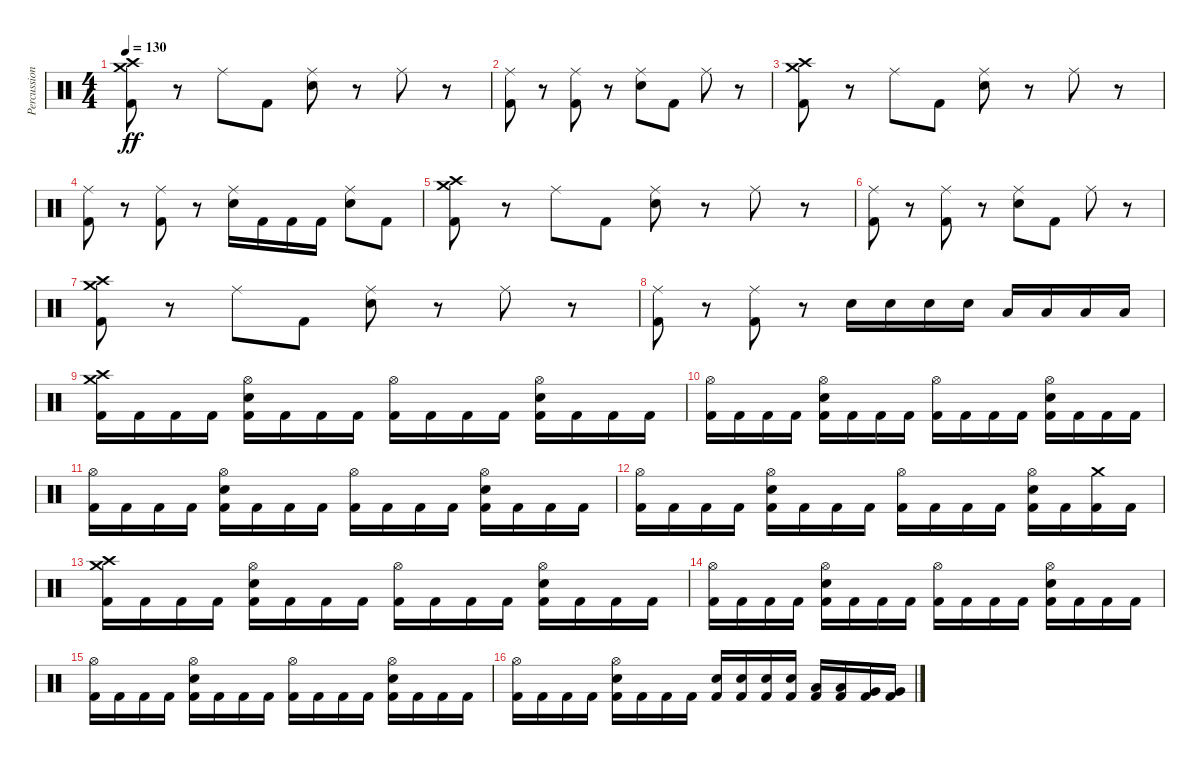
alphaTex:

\track ("Percussion" "Percussion") {instrument percussion}
\staff {score}
\articulation defaults
\ts (4 4)
\tempo 130
\clef neutral
\ks c
("Kick (hit) 2" "Crash high (hit)" "Crash medium (hit)").8{dy ff} r.8 "Ride (middle)".8 "Kick (hit) 2".8 ("Electric Snare (hit)" "Ride (middle)").8 r.8 "Ride (middle)".8 r.8 |
("Kick (hit) 2" "Ride (middle)").8 r.8 ("Kick (hit) 2" "Ride (middle)").8 r.8 ("Electric Snare (hit)" "Ride (middle)").8 "Kick (hit) 2".8 "Ride (middle)".8 r.8 |
("Kick (hit) 2" "Crash high (hit)" "Crash medium (hit)").8 r.8 "Ride (middle)".8 "Kick (hit) 2".8 ("Electric Snare (hit)" "Ride (middle)").8 r.8 "Ride (middle)".8 r.8 |
("Kick (hit) 2" "Ride (middle)").8 r.8 ("Kick (hit) 2" "Ride (middle)").8 r.8 ("Electric Snare (hit)" "Ride (middle)").16 "Kick (hit) 2".16 "Kick (hit) 2".16 "Kick (hit) 2".16 ("Electric Snare (hit)" "Ride (middle)").8 "Kick (hit) 2".8 |
("Kick (hit) 2" "Crash high (hit)" "Crash medium (hit)").8 r.8 "Ride (middle)".8 "Kick (hit) 2".8 ("Electric Snare (hit)" "Ride (middle)").8 r.8 "Ride (middle)".8 r.8 |
("Kick (hit) 2" "Ride (middle)").8 r.8 ("Kick (hit) 2" "Ride (middle)").8 r.8 ("Electric Snare (hit)" "Ride (middle)").8 "Kick (hit) 2".8 "Ride (middle)".8 r.8 |
("Kick (hit) 2" "Crash high (hit)" "Crash medium (hit)").8 r.8 "Ride (middle)".8 "Kick (hit) 2".8 ("Electric Snare (hit)" "Ride (middle)").8 r.8 "Ride (middle)".8 r.8 |
("Kick (hit) 2" "Ride (middle)").8 r.8 ("Kick (hit) 2" "Ride (middle)").8 r.8 "Electric Snare (hit)".16 "Electric Snare (hit)".16 "Electric Snare (hit)".16 "Electric Snare (hit)".16 "Low Tom (hit)".16 "Low Tom (hit)".16 "Low Tom (hit)".16 "Low Tom (hit)".16 |
("Kick (hit) 2" "Crash high (hit)" "Crash medium (hit)").16 "Kick (hit) 2".16 "Kick (hit) 2".16 "Kick (hit) 2".16 ("Kick (hit) 2" "Electric Snare (hit)" "Hi-Hat (open)").16 "Kick (hit) 2".16 "Kick (hit) 2".16 "Kick (hit) 2".16 ("Kick (hit) 2" "Hi-Hat (open)").16 "Kick (hit) 2".16 "Kick (hit) 2".16 "Kick (hit) 2".16 ("Kick (hit) 2" "Electric Snare (hit)" "Hi-Hat (open)").16 "Kick (hit) 2".16 "Kick (hit) 2".16 "Kick (hit) 2".16 |
("Kick (hit) 2" "Hi-Hat (open)").16 "Kick (hit) 2".16 "Kick (hit) 2".16 "Kick (hit) 2".16 ("Kick (hit) 2" "Electric Snare (hit)" "Hi-Hat (open)").16 "Kick (hit) 2".16 "Kick (hit) 2".16 "Kick (hit) 2".16 ("Kick (hit) 2" "Hi-Hat (open)").16 "Kick (hit) 2".16 "Kick (hit) 2".16 "Kick (hit) 2".16 ("Kick (hit) 2" "Electric Snare (hit)" "Hi-Hat (open)").16 "Kick (hit) 2".16 "Kick (hit) 2".16 "Kick (hit) 2".16 |
("Kick (hit) 2" "Hi-Hat (open)").16 "Kick (hit) 2".16 "Kick (hit) 2".16 "Kick (hit) 2".16 ("Kick (hit) 2" "Electric Snare (hit)" "Hi-Hat (open)").16 "Kick (hit) 2".16 "Kick (hit) 2".16 "Kick (hit) 2".16 ("Kick (hit) 2" "Hi-Hat (open)").16 "Kick (hit) 2".16 "Kick (hit) 2".16 "Kick (hit) 2".16 ("Kick (hit) 2" "Electric Snare (hit)" "Hi-Hat (open)").16 "Kick (hit) 2".16 "Kick (hit) 2".16 "Kick (hit) 2".16 |
("Kick (hit) 2" "Hi-Hat (open)").16 "Kick (hit) 2".16 "Kick (hit) 2".16 "Kick (hit) 2".16 ("Kick (hit) 2" "Electric Snare (hit)" "Hi-Hat (open)").16 "Kick (hit) 2".16 "Kick (hit) 2".16 "Kick (hit) 2".16 ("Kick (hit) 2" "Hi-Hat (open)").16 "Kick (hit) 2".16 "Kick (hit) 2".16 "Kick (hit) 2".16 ("Kick (hit) 2" "Electric Snare (hit)" "Hi-Hat (open)").16 "Kick (hit) 2".16 ("Kick (hit) 2" "Crash medium (hit)").16 "Kick (hit) 2".16 |
("Kick (hit) 2" "Crash high (hit)" "Crash medium (hit)").16 "Kick (hit) 2".16 "Kick (hit) 2".16 "Kick (hit) 2".16 ("Kick (hit) 2" "Electric Snare (hit)" "Hi-Hat (open)").16 "Kick (hit) 2".16 "Kick (hit) 2".16 "Kick (hit) 2".16 ("Kick (hit) 2" "Hi-Hat (open)").16 "Kick (hit) 2".16 "Kick (hit) 2".16 "Kick (hit) 2".16 ("Kick (hit) 2" "Electric Snare (hit)" "Hi-Hat (open)").16 "Kick (hit) 2".16 "Kick (hit) 2".16 "Kick (hit) 2".16 |
("Kick (hit) 2" "Hi-Hat (open)").16 "Kick (hit) 2".16 "Kick (hit) 2".16 "Kick (hit) 2".16 ("Kick (hit) 2" "Electric Snare (hit)" "Hi-Hat (open)").16 "Kick (hit) 2".16 "Kick (hit) 2".16 "Kick (hit) 2".16 ("Kick (hit) 2" "Hi-Hat (open)").16 "Kick (hit) 2".16 "Kick (hit) 2".16 "Kick (hit) 2".16 ("Kick (hit) 2" "Electric Snare (hit)" "Hi-Hat (open)").16 "Kick (hit) 2".16 "Kick (hit) 2".16 "Kick (hit) 2".16 |
("Kick (hit) 2" "Hi-Hat (open)").16 "Kick (hit) 2".16 "Kick (hit) 2".16 "Kick (hit) 2".16 ("Kick (hit) 2" "Electric Snare (hit)" "Hi-Hat (open)").16 "Kick (hit) 2".16 "Kick (hit) 2".16 "Kick (hit) 2".16 ("Kick (hit) 2" "Hi-Hat (open)").16 "Kick (hit) 2".16 "Kick (hit) 2".16 "Kick (hit) 2".16 ("Kick (hit) 2" "Electric Snare (hit)" "Hi-Hat (open)").16 "Kick (hit) 2".16 "Kick (hit) 2".16 "Kick (hit) 2".16 |
("Kick (hit) 2" "Hi-Hat (open)").16 "Kick (hit) 2".16 "Kick (hit) 2".16 "Kick (hit) 2".16 ("Kick (hit) 2" "Electric Snare (hit)" "Hi-Hat (open)").16 "Kick (hit) 2".16 "Kick (hit) 2".16 "Kick (hit) 2".16 ("Kick (hit) 2" "Electric Snare (hit)").16 ("Kick (hit) 2" "Electric Snare (hit)").16 ("Kick (hit) 2" "Electric Snare (hit)").16 ("Kick (hit) 2" "Electric Snare (hit)").16 ("Kick (hit) 2" "Low Tom (hit)").16 ("Kick (hit) 2" "Low Tom (hit)").16 ("Kick (hit) 2" "Very Low Tom (hit)").16 ("Kick (hit) 2" "Very Low Tom (hit)").16
